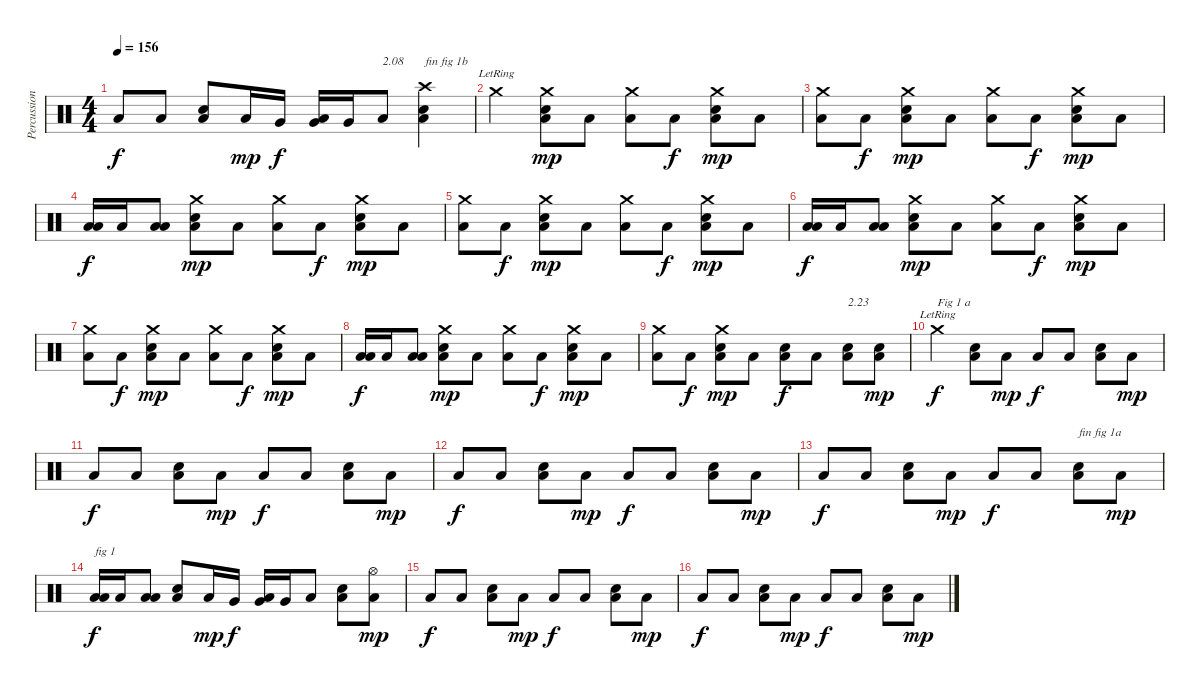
\track ("Percussions" "Percussion") {instrument percussion}
\staff {score}
\articulation defaults
\ts (4 4)
\tempo 156
\clef neutral
\ks c "Low Floor Tom (hit)".8{dy f} "Low Floor Tom (hit)".8
("Low Floor Tom (hit)" "Snare (hit) 2").8 "Low Floor Tom (hit)".16{dy mp} "Very Low Tom (hit)".16{dy f} ("Low Floor Tom (hit)" "Very Low Tom (hit)").16 "Very Low Tom (hit)".16 "Low Floor Tom (hit)".8{txt "2.08"} ("Low Floor Tom (hit)" "Snare (hit) 2" "Crash high (hit)").4{txt "fin fig 1b"} |
"Crash medium (hit)"{lr}.4 ("Low Floor Tom (hit)" "Snare (hit) 2" "Crash medium (hit)").8{dy mp} "Low Floor Tom (hit)".8 ("Low Floor Tom (hit)" "Crash medium (hit)").8 "Low Floor Tom (hit)".8{dy f} ("Low Floor Tom (hit)" "Snare (hit) 2" "Crash medium (hit)").8{dy mp} "Low Floor Tom (hit)".8 |
("Low Floor Tom (hit)" "Crash medium (hit)").8 "Low Floor Tom (hit)".8{dy f} ("Low Floor Tom (hit)" "Snare (hit) 2" "Crash medium (hit)").8{dy mp} "Low Floor Tom (hit)".8 ("Low Floor Tom (hit)" "Crash medium (hit)").8 "Low Floor Tom (hit)".8{dy f} ("Low Floor Tom (hit)" "Snare (hit) 2" "Crash medium (hit)").8{dy mp} "Low Floor Tom (hit)".8 |
("Low Floor Tom (hit)" "Low Tom (hit)").16{dy f} "Low Tom (hit)".16 ("Low Floor Tom (hit)" "Low Tom (hit)").8 ("Low Floor Tom (hit)" "Snare (hit) 2" "Crash medium (hit)").8{dy mp} "Low Floor Tom (hit)".8 ("Low Floor Tom (hit)" "Crash medium (hit)").8 "Low Floor Tom (hit)".8{dy f} ("Low Floor Tom (hit)" "Snare (hit) 2" "Crash medium (hit)").8{dy mp} "Low Floor Tom (hit)".8 |
("Low Floor Tom (hit)" "Crash medium (hit)").8 "Low Floor Tom (hit)".8{dy f} ("Low Floor Tom (hit)" "Snare (hit) 2" "Crash medium (hit)").8{dy mp} "Low Floor Tom (hit)".8 ("Low Floor Tom (hit)" "Crash medium (hit)").8 "Low Floor Tom (hit)".8{dy f} ("Low Floor Tom (hit)" "Snare (hit) 2" "Crash medium (hit)").8{dy mp} "Low Floor Tom (hit)".8 |
("Low Floor Tom (hit)" "Low Tom (hit)").16{dy f} "Low Tom (hit)".16 ("Low Floor Tom (hit)" "Low Tom (hit)").8 ("Low Floor Tom (hit)" "Snare (hit) 2" "Crash medium (hit)").8{dy mp} "Low Floor Tom (hit)".8 ("Low Floor Tom (hit)" "Crash medium (hit)").8 "Low Floor Tom (hit)".8{dy f} ("Low Floor Tom (hit)" "Snare (hit) 2" "Crash medium (hit)").8{dy mp} "Low Floor Tom (hit)".8 |
("Low Floor Tom (hit)" "Crash medium (hit)").8 "Low Floor Tom (hit)".8{dy f} ("Low Floor Tom (hit)" "Snare (hit) 2" "Crash medium (hit)").8{dy mp} "Low Floor Tom (hit)".8 ("Low Floor Tom (hit)" "Crash medium (hit)").8 "Low Floor Tom (hit)".8{dy f} ("Low Floor Tom (hit)" "Snare (hit) 2" "Crash medium (hit)").8{dy mp} "Low Floor Tom (hit)".8 |
("Low Floor Tom (hit)" "Low Tom (hit)").16{dy f} "Low Tom (hit)".16 ("Low Floor Tom (hit)" "Low Tom (hit)").8 ("Low Floor Tom (hit)" "Snare (hit) 2" "Crash medium (hit)").8{dy mp} "Low Floor Tom (hit)".8 ("Low Floor Tom (hit)" "Crash medium (hit)").8 "Low Floor Tom (hit)".8{dy f} ("Low Floor Tom (hit)" "Snare (hit) 2" "Crash medium (hit)").8{dy mp} "Low Floor Tom (hit)".8 |
("Low Floor Tom (hit)" "Crash medium (hit)").8 "Low Floor Tom (hit)".8{dy f} ("Low Floor Tom (hit)" "Snare (hit) 2" "Crash medium (hit)").8{dy mp} "Low Floor Tom (hit)".8 ("Low Floor Tom (hit)" "Snare (hit) 2").8{dy f} "Low Floor Tom (hit)".8 ("Low Floor Tom (hit)" "Snare (hit) 2").8{txt "2.23"} ("Low Floor Tom (hit)" "Snare (hit) 2").8{dy mp} |
"Crash medium (hit)"{lr}.4{txt "Fig 1 a" dy f} ("Low Floor Tom (hit)" "Snare (hit) 2").8 "Low Floor Tom (hit)".8{dy mp} "Low Floor Tom (hit)".8{dy f} "Low Floor Tom (hit)".8 ("Low Floor Tom (hit)" "Snare (hit) 2").8 "Low Floor Tom (hit)".8{dy mp} |
"Low Floor Tom (hit)".8{dy f} "Low Floor Tom (hit)".8 ("Low Floor Tom (hit)" "Snare (hit) 2").8 "Low Floor Tom (hit)".8{dy mp} "Low Floor Tom (hit)".8{dy f} "Low Floor Tom (hit)".8 ("Low Floor Tom (hit)" "Snare (hit) 2").8 "Low Floor Tom (hit)".8{dy mp} |
"Low Floor Tom (hit)".8{dy f} "Low Floor Tom (hit)".8 ("Low Floor Tom (hit)" "Snare (hit) 2").8 "Low Floor Tom (hit)".8{dy mp} "Low Floor Tom (hit)".8{dy f} "Low Floor Tom (hit)".8 ("Low Floor Tom (hit)" "Snare (hit) 2").8 "Low Floor Tom (hit)".8{dy mp} |
"Low Floor Tom (hit)".8{dy f} "Low Floor Tom (hit)".8 ("Low Floor Tom (hit)" "Snare (hit) 2").8 "Low Floor Tom (hit)".8{dy mp} "Low Floor Tom (hit)".8{dy f} "Low Floor Tom (hit)".8 ("Low Floor Tom (hit)" "Snare (hit) 2").8{txt "fin fig 1a"} "Low Floor Tom (hit)".8{dy mp} |
("Low Floor Tom (hit)" "Low Tom (hit)").16{txt "fig 1" dy f} "Low Tom (hit)".16 ("Low Floor Tom (hit)" "Low Tom (hit)").8 ("Low Floor Tom (hit)" "Snare (hit) 2").8 "Low Floor Tom (hit)".16{dy mp} "Very Low Tom (hit)".16{dy f} ("Low Floor Tom (hit)" "Very Low Tom (hit)").16 "Very Low Tom (hit)".16 "Low Floor Tom (hit)".8 ("Low Floor Tom (hit)" "Snare (hit) 2").8 ("Low Floor Tom (hit)" "Hi-Hat (open)").8{dy mp} |
"Low Floor Tom (hit)".8{dy f} "Low Floor Tom (hit)".8 ("Low Floor Tom (hit)" "Snare (hit) 2").8 "Low Floor Tom (hit)".8{dy mp} "Low Floor Tom (hit)".8{dy f} "Low Floor Tom (hit)".8 ("Low Floor Tom (hit)" "Snare (hit) 2").8 "Low Floor Tom (hit)".8{dy mp} |
"Low Floor Tom (hit)".8{dy f} "Low Floor Tom (hit)".8 ("Low Floor Tom (hit)" "Snare (hit) 2").8 "Low Floor Tom (hit)".8{dy mp} "Low Floor Tom (hit)".8{dy f} "Low Floor Tom (hit)".8 ("Low Floor Tom (hit)" "Snare (hit) 2").8 "Low Floor Tom (hit)".8{dy mp}
